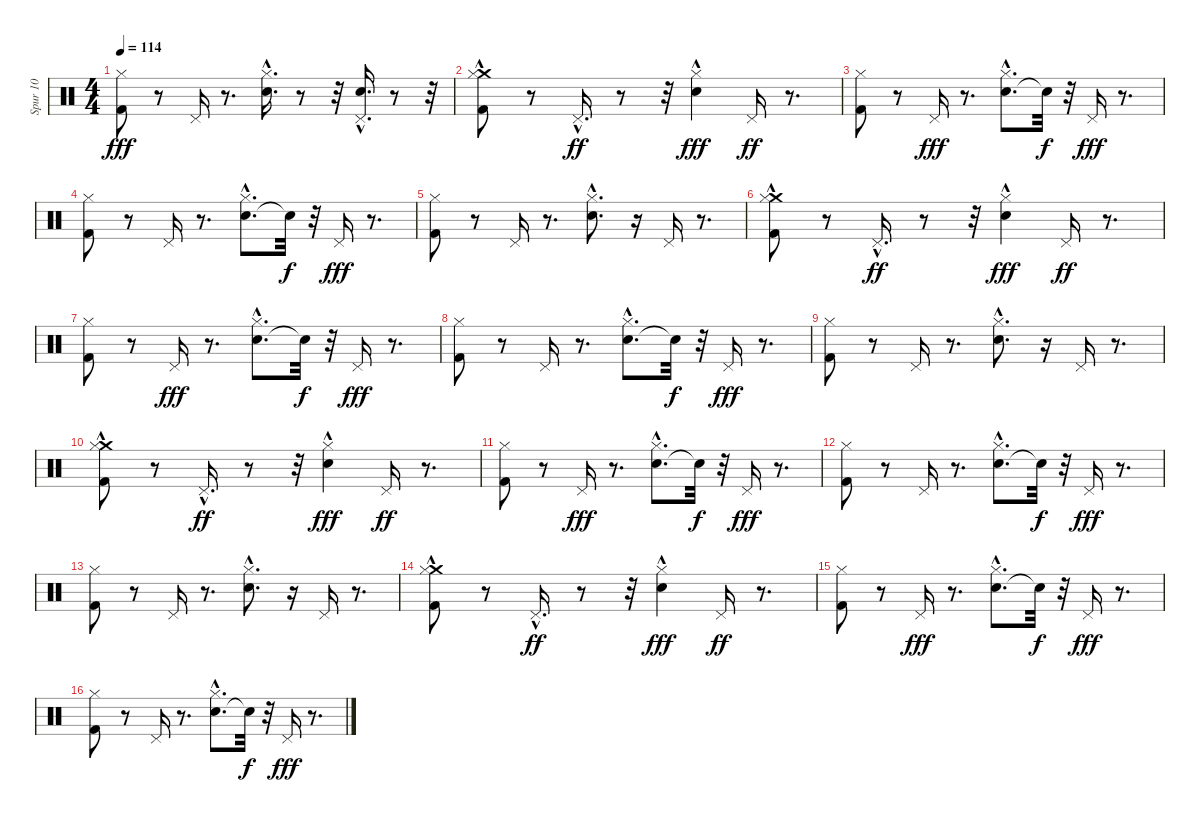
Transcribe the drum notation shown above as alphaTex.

\track ("Spur 10" "Spur 10") {instrument percussion}
\staff {score}
\articulation defaults
\ts (4 4)
\tempo 114
\clef neutral
\ks c
("Kick (hit) 2" "Hi-Hat (closed)").8{dy fff} r.8 "Pedal Hi-Hat (hit)".16 r.8{d} ("Snare (hit) 2"{hac} "Hi-Hat (closed)").16{d} r.8 r.32 ("Snare (hit) 2"{hac} "Pedal Hi-Hat (hit)").16{d} r.8 r.32 |
("Kick (hit) 2" "Crash medium (hit)"{hac} "Hi-Hat (closed)"{hac}).8 r.8 "Pedal Hi-Hat (hit)"{hac}.16{d dy ff} r.8 r.32 ("Snare (hit) 2" "Hi-Hat (closed)"{hac}).4{dy fff} "Pedal Hi-Hat (hit)".16{dy ff} r.8{d} |
("Kick (hit) 2" "Hi-Hat (closed)").8 r.8 "Pedal Hi-Hat (hit)".16{dy fff} r.8{d} ("Snare (hit) 2"{hac} "Hi-Hat (closed)").8{d} "Snare (hit)"{t}.32{dy f} r.32 "Pedal Hi-Hat (hit)".16{dy fff} r.8{d} |
("Kick (hit) 2" "Hi-Hat (closed)").8 r.8 "Pedal Hi-Hat (hit)".16 r.8{d} ("Snare (hit) 2"{hac} "Hi-Hat (closed)").8{d} "Snare (hit)"{t}.32{dy f} r.32 "Pedal Hi-Hat (hit)".16{dy fff} r.8{d} |
("Kick (hit) 2" "Hi-Hat (closed)").8 r.8 "Pedal Hi-Hat (hit)".16 r.8{d} ("Snare (hit) 2"{hac} "Hi-Hat (closed)").8{d} r.16 "Pedal Hi-Hat (hit)".16 r.8{d} |
("Kick (hit) 2" "Crash medium (hit)"{hac} "Hi-Hat (closed)"{hac}).8 r.8 "Pedal Hi-Hat (hit)"{hac}.16{d dy ff} r.8 r.32 ("Snare (hit) 2" "Hi-Hat (closed)"{hac}).4{dy fff} "Pedal Hi-Hat (hit)".16{dy ff} r.8{d} |
("Kick (hit) 2" "Hi-Hat (closed)").8 r.8 "Pedal Hi-Hat (hit)".16{dy fff} r.8{d} ("Snare (hit) 2"{hac} "Hi-Hat (closed)").8{d} "Snare (hit)"{t}.32{dy f} r.32 "Pedal Hi-Hat (hit)".16{dy fff} r.8{d} |
("Kick (hit) 2" "Hi-Hat (closed)").8 r.8 "Pedal Hi-Hat (hit)".16 r.8{d} ("Snare (hit) 2"{hac} "Hi-Hat (closed)").8{d} "Snare (hit)"{t}.32{dy f} r.32 "Pedal Hi-Hat (hit)".16{dy fff} r.8{d} |
("Kick (hit) 2" "Hi-Hat (closed)").8 r.8 "Pedal Hi-Hat (hit)".16 r.8{d} ("Snare (hit) 2"{hac} "Hi-Hat (closed)").8{d} r.16 "Pedal Hi-Hat (hit)".16 r.8{d} |
("Kick (hit) 2" "Crash medium (hit)"{hac} "Hi-Hat (closed)"{hac}).8 r.8 "Pedal Hi-Hat (hit)"{hac}.16{d dy ff} r.8 r.32 ("Snare (hit) 2" "Hi-Hat (closed)"{hac}).4{dy fff} "Pedal Hi-Hat (hit)".16{dy ff} r.8{d} |
("Kick (hit) 2" "Hi-Hat (closed)").8 r.8 "Pedal Hi-Hat (hit)".16{dy fff} r.8{d} ("Snare (hit) 2"{hac} "Hi-Hat (closed)").8{d} "Snare (hit)"{t}.32{dy f} r.32 "Pedal Hi-Hat (hit)".16{dy fff} r.8{d} |
("Kick (hit) 2" "Hi-Hat (closed)").8 r.8 "Pedal Hi-Hat (hit)".16 r.8{d} ("Snare (hit) 2"{hac} "Hi-Hat (closed)").8{d} "Snare (hit)"{t}.32{dy f} r.32 "Pedal Hi-Hat (hit)".16{dy fff} r.8{d} |
("Kick (hit) 2" "Hi-Hat (closed)").8 r.8 "Pedal Hi-Hat (hit)".16 r.8{d} ("Snare (hit) 2"{hac} "Hi-Hat (closed)").8{d} r.16 "Pedal Hi-Hat (hit)".16 r.8{d} |
("Kick (hit) 2" "Crash medium (hit)"{hac} "Hi-Hat (closed)"{hac}).8 r.8 "Pedal Hi-Hat (hit)"{hac}.16{d dy ff} r.8 r.32 ("Snare (hit) 2" "Hi-Hat (closed)"{hac}).4{dy fff} "Pedal Hi-Hat (hit)".16{dy ff} r.8{d} |
("Kick (hit) 2" "Hi-Hat (closed)").8 r.8 "Pedal Hi-Hat (hit)".16{dy fff} r.8{d} ("Snare (hit) 2"{hac} "Hi-Hat (closed)").8{d} "Snare (hit)"{t}.32{dy f} r.32 "Pedal Hi-Hat (hit)".16{dy fff} r.8{d} |
("Kick (hit) 2" "Hi-Hat (closed)").8 r.8 "Pedal Hi-Hat (hit)".16 r.8{d} ("Snare (hit) 2"{hac} "Hi-Hat (closed)").8{d} "Snare (hit)"{t}.32{dy f} r.32 "Pedal Hi-Hat (hit)".16{dy fff} r.8{d}
